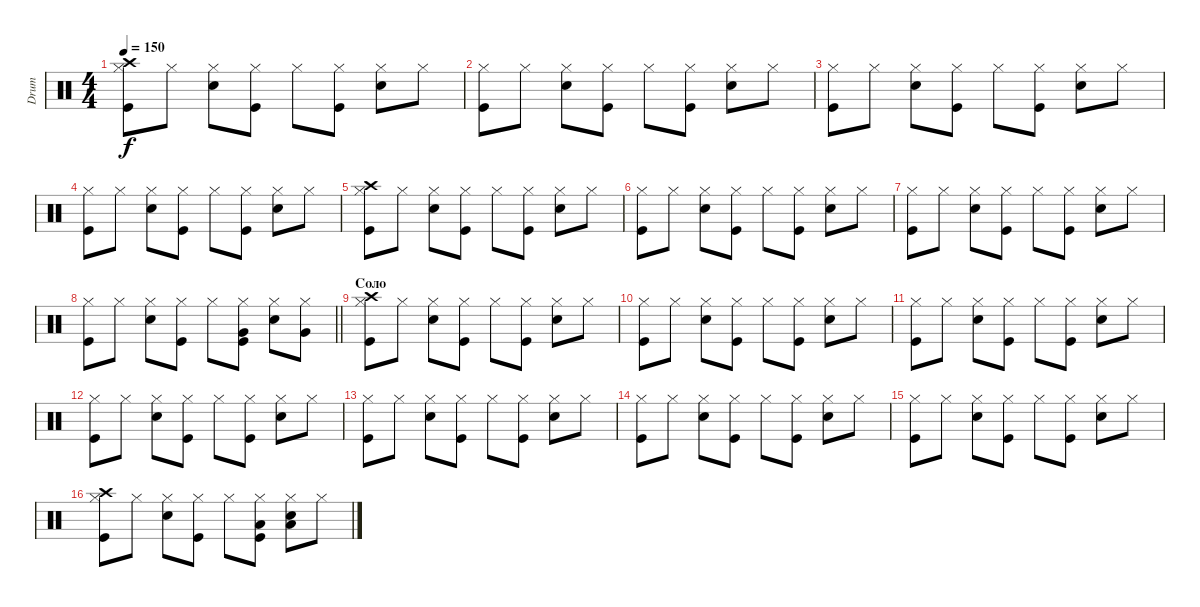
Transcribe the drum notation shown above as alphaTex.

\track ("Drum" "Drum") {instrument percussion}
\staff {score}
\articulation defaults
\ts (4 4)
\tempo 150
\clef neutral
\ks c
("Kick (hit)" "Hi-Hat (closed)" "Crash high (hit)").8{dy f} "Hi-Hat (closed)".8 ("Snare (hit) 2" "Hi-Hat (closed)").8 ("Kick (hit)" "Hi-Hat (closed)").8 "Hi-Hat (closed)".8 ("Kick (hit)" "Hi-Hat (closed)").8 ("Snare (hit) 2" "Hi-Hat (closed)").8 "Hi-Hat (closed)".8 |
("Kick (hit)" "Hi-Hat (closed)").8 "Hi-Hat (closed)".8 ("Snare (hit) 2" "Hi-Hat (closed)").8 ("Kick (hit)" "Hi-Hat (closed)").8 "Hi-Hat (closed)".8 ("Kick (hit)" "Hi-Hat (closed)").8 ("Snare (hit) 2" "Hi-Hat (closed)").8 "Hi-Hat (closed)".8 |
("Kick (hit)" "Hi-Hat (closed)").8 "Hi-Hat (closed)".8 ("Snare (hit) 2" "Hi-Hat (closed)").8 ("Kick (hit)" "Hi-Hat (closed)").8 "Hi-Hat (closed)".8 ("Kick (hit)" "Hi-Hat (closed)").8 ("Snare (hit) 2" "Hi-Hat (closed)").8 "Hi-Hat (closed)".8 |
("Kick (hit)" "Hi-Hat (closed)").8 "Hi-Hat (closed)".8 ("Snare (hit) 2" "Hi-Hat (closed)").8 ("Kick (hit)" "Hi-Hat (closed)").8 "Hi-Hat (closed)".8 ("Kick (hit)" "Hi-Hat (closed)").8 ("Snare (hit) 2" "Hi-Hat (closed)").8 "Hi-Hat (closed)".8 |
("Kick (hit)" "Hi-Hat (closed)" "Crash high (hit)").8 "Hi-Hat (closed)".8 ("Snare (hit) 2" "Hi-Hat (closed)").8 ("Kick (hit)" "Hi-Hat (closed)").8 "Hi-Hat (closed)".8 ("Kick (hit)" "Hi-Hat (closed)").8 ("Snare (hit) 2" "Hi-Hat (closed)").8 "Hi-Hat (closed)".8 |
("Kick (hit)" "Hi-Hat (closed)").8 "Hi-Hat (closed)".8 ("Snare (hit) 2" "Hi-Hat (closed)").8 ("Kick (hit)" "Hi-Hat (closed)").8 "Hi-Hat (closed)".8 ("Kick (hit)" "Hi-Hat (closed)").8 ("Snare (hit) 2" "Hi-Hat (closed)").8 "Hi-Hat (closed)".8 |
("Kick (hit)" "Hi-Hat (closed)").8 "Hi-Hat (closed)".8 ("Snare (hit) 2" "Hi-Hat (closed)").8 ("Kick (hit)" "Hi-Hat (closed)").8 "Hi-Hat (closed)".8 ("Kick (hit)" "Hi-Hat (closed)").8 ("Snare (hit) 2" "Hi-Hat (closed)").8 "Hi-Hat (closed)".8 |
\barLineRight lightlight
("Kick (hit)" "Hi-Hat (closed)").8 "Hi-Hat (closed)".8 ("Snare (hit) 2" "Hi-Hat (closed)").8 ("Kick (hit)" "Hi-Hat (closed)").8 "Hi-Hat (closed)".8 ("Kick (hit)" "Hi-Hat (closed)" "Very Low Tom (hit)").8 ("Snare (hit) 2" "Hi-Hat (closed)").8 ("Hi-Hat (closed)" "Very Low Tom (hit)").8 |
\section ("" "Соло")
("Kick (hit)" "Hi-Hat (closed)" "Crash high (hit)").8 "Hi-Hat (closed)".8 ("Snare (hit) 2" "Hi-Hat (closed)").8 ("Kick (hit)" "Hi-Hat (closed)").8 "Hi-Hat (closed)".8 ("Kick (hit)" "Hi-Hat (closed)").8 ("Snare (hit) 2" "Hi-Hat (closed)").8 "Hi-Hat (closed)".8 |
("Kick (hit)" "Hi-Hat (closed)").8 "Hi-Hat (closed)".8 ("Snare (hit) 2" "Hi-Hat (closed)").8 ("Kick (hit)" "Hi-Hat (closed)").8 "Hi-Hat (closed)".8 ("Kick (hit)" "Hi-Hat (closed)").8 ("Snare (hit) 2" "Hi-Hat (closed)").8 "Hi-Hat (closed)".8 |
("Kick (hit)" "Hi-Hat (closed)").8 "Hi-Hat (closed)".8 ("Snare (hit) 2" "Hi-Hat (closed)").8 ("Kick (hit)" "Hi-Hat (closed)").8 "Hi-Hat (closed)".8 ("Kick (hit)" "Hi-Hat (closed)").8 ("Snare (hit) 2" "Hi-Hat (closed)").8 "Hi-Hat (closed)".8 |
("Kick (hit)" "Hi-Hat (closed)").8 "Hi-Hat (closed)".8 ("Snare (hit) 2" "Hi-Hat (closed)").8 ("Kick (hit)" "Hi-Hat (closed)").8 "Hi-Hat (closed)".8 ("Kick (hit)" "Hi-Hat (closed)").8 ("Snare (hit) 2" "Hi-Hat (closed)").8 "Hi-Hat (closed)".8 |
("Kick (hit)" "Hi-Hat (closed)").8 "Hi-Hat (closed)".8 ("Snare (hit) 2" "Hi-Hat (closed)").8 ("Kick (hit)" "Hi-Hat (closed)").8 "Hi-Hat (closed)".8 ("Kick (hit)" "Hi-Hat (closed)").8 ("Snare (hit) 2" "Hi-Hat (closed)").8 "Hi-Hat (closed)".8 |
("Kick (hit)" "Hi-Hat (closed)").8 "Hi-Hat (closed)".8 ("Snare (hit) 2" "Hi-Hat (closed)").8 ("Kick (hit)" "Hi-Hat (closed)").8 "Hi-Hat (closed)".8 ("Kick (hit)" "Hi-Hat (closed)").8 ("Snare (hit) 2" "Hi-Hat (closed)").8 "Hi-Hat (closed)".8 |
("Kick (hit)" "Hi-Hat (closed)").8 "Hi-Hat (closed)".8 ("Snare (hit) 2" "Hi-Hat (closed)").8 ("Kick (hit)" "Hi-Hat (closed)").8 "Hi-Hat (closed)".8 ("Kick (hit)" "Hi-Hat (closed)").8 ("Snare (hit) 2" "Hi-Hat (closed)").8 "Hi-Hat (closed)".8 |
("Kick (hit)" "Hi-Hat (closed)" "Crash high (hit)").8 "Hi-Hat (closed)".8 ("Snare (hit) 2" "Hi-Hat (closed)").8 ("Kick (hit)" "Hi-Hat (closed)").8 "Hi-Hat (closed)".8 ("Kick (hit)" "Hi-Hat (closed)" "Low Floor Tom (hit)").8 ("Snare (hit) 2" "Hi-Hat (closed)" "Low Floor Tom (hit)").8 "Hi-Hat (closed)".8
